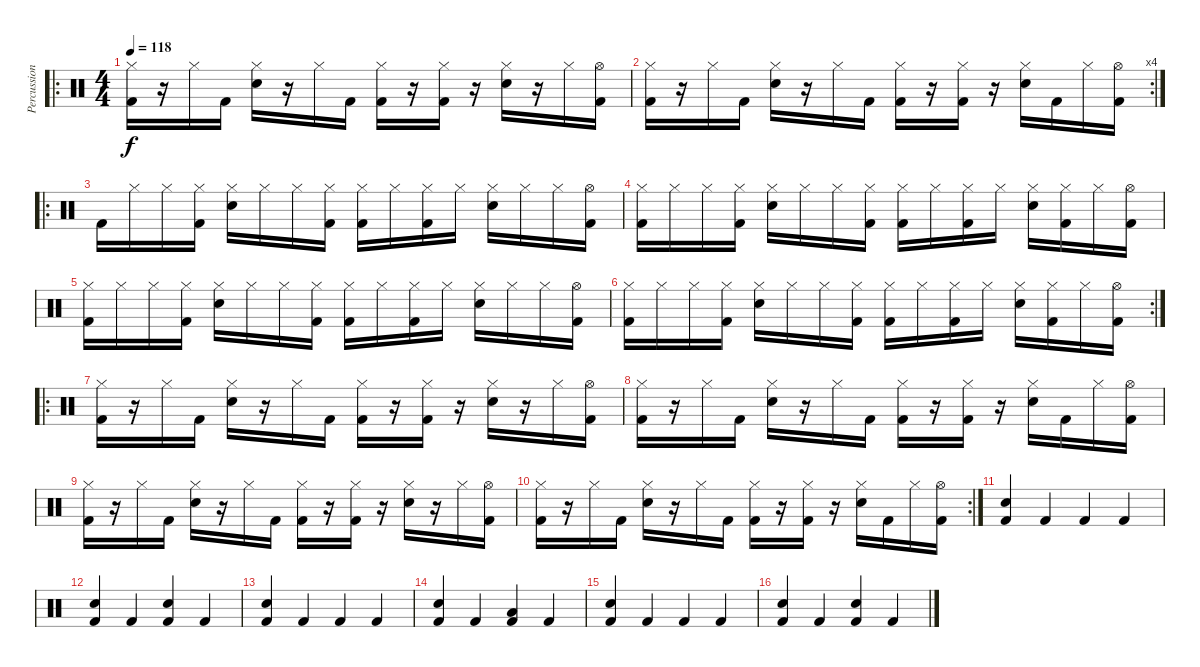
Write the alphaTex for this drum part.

\track ("Percussion" "Percussion") {instrument percussion}
\staff {score}
\articulation defaults
\ro
\ts (4 4)
\tempo 118
\clef neutral
\ks c
("Hi-Hat (closed)" "Kick (hit) 2").16{dy f} r.16 "Hi-Hat (closed)".16 "Kick (hit) 2".16 ("Hi-Hat (closed)" "Electric Snare (hit)").16 r.16 "Hi-Hat (closed)".16 "Kick (hit) 2".16 ("Hi-Hat (closed)" "Kick (hit) 2").16 r.16 ("Hi-Hat (closed)" "Kick (hit) 2").16 r.16 ("Hi-Hat (closed)" "Electric Snare (hit)").16 r.16 "Hi-Hat (closed)".16 ("Hi-Hat (open)" "Kick (hit) 2").16 |
\rc 4
("Hi-Hat (closed)" "Kick (hit) 2").16 r.16 "Hi-Hat (closed)".16 "Kick (hit) 2".16 ("Hi-Hat (closed)" "Electric Snare (hit)").16 r.16 "Hi-Hat (closed)".16 "Kick (hit) 2".16 ("Hi-Hat (closed)" "Kick (hit) 2").16 r.16 ("Hi-Hat (closed)" "Kick (hit) 2").16 r.16 ("Hi-Hat (closed)" "Electric Snare (hit)").16 "Kick (hit) 2".16 "Hi-Hat (closed)".16 ("Hi-Hat (open)" "Kick (hit) 2").16 |
\ro "Kick (hit) 2".16 "Hi-Hat (closed)".16 "Hi-Hat (closed)".16
("Hi-Hat (closed)" "Kick (hit) 2").16 ("Hi-Hat (closed)" "Electric Snare (hit)").16 "Hi-Hat (closed)".16 "Hi-Hat (closed)".16 ("Hi-Hat (closed)" "Kick (hit) 2").16 ("Hi-Hat (closed)" "Kick (hit) 2").16 "Hi-Hat (closed)".16 ("Hi-Hat (closed)" "Kick (hit) 2").16 "Hi-Hat (closed)".16 ("Hi-Hat (closed)" "Electric Snare (hit)").16 "Hi-Hat (closed)".16 "Hi-Hat (closed)".16 ("Hi-Hat (open)" "Kick (hit) 2").16 |
("Hi-Hat (closed)" "Kick (hit) 2").16 "Hi-Hat (closed)".16 "Hi-Hat (closed)".16 ("Hi-Hat (closed)" "Kick (hit) 2").16 ("Hi-Hat (closed)" "Electric Snare (hit)").16 "Hi-Hat (closed)".16 "Hi-Hat (closed)".16 ("Hi-Hat (closed)" "Kick (hit) 2").16 ("Hi-Hat (closed)" "Kick (hit) 2").16 "Hi-Hat (closed)".16 ("Hi-Hat (closed)" "Kick (hit) 2").16 "Hi-Hat (closed)".16 ("Hi-Hat (closed)" "Electric Snare (hit)").16 ("Hi-Hat (closed)" "Kick (hit) 2").16 "Hi-Hat (closed)".16 ("Hi-Hat (open)" "Kick (hit) 2").16 |
("Hi-Hat (closed)" "Kick (hit) 2").16 "Hi-Hat (closed)".16 "Hi-Hat (closed)".16 ("Hi-Hat (closed)" "Kick (hit) 2").16 ("Hi-Hat (closed)" "Electric Snare (hit)").16 "Hi-Hat (closed)".16 "Hi-Hat (closed)".16 ("Hi-Hat (closed)" "Kick (hit) 2").16 ("Hi-Hat (closed)" "Kick (hit) 2").16 "Hi-Hat (closed)".16 ("Hi-Hat (closed)" "Kick (hit) 2").16 "Hi-Hat (closed)".16 ("Hi-Hat (closed)" "Electric Snare (hit)").16 "Hi-Hat (closed)".16 "Hi-Hat (closed)".16 ("Hi-Hat (open)" "Kick (hit) 2").16 |
\rc 2
("Hi-Hat (closed)" "Kick (hit) 2").16 "Hi-Hat (closed)".16 "Hi-Hat (closed)".16 ("Hi-Hat (closed)" "Kick (hit) 2").16 ("Hi-Hat (closed)" "Electric Snare (hit)").16 "Hi-Hat (closed)".16 "Hi-Hat (closed)".16 ("Hi-Hat (closed)" "Kick (hit) 2").16 ("Hi-Hat (closed)" "Kick (hit) 2").16 "Hi-Hat (closed)".16 ("Hi-Hat (closed)" "Kick (hit) 2").16 "Hi-Hat (closed)".16 ("Hi-Hat (closed)" "Electric Snare (hit)").16 ("Hi-Hat (closed)" "Kick (hit) 2").16 "Hi-Hat (closed)".16 ("Hi-Hat (open)" "Kick (hit) 2").16 |
\ro
("Hi-Hat (closed)" "Kick (hit) 2").16{volume 16} r.16 "Hi-Hat (closed)".16 "Kick (hit) 2".16 ("Hi-Hat (closed)" "Electric Snare (hit)").16 r.16 "Hi-Hat (closed)".16 "Kick (hit) 2".16 ("Hi-Hat (closed)" "Kick (hit) 2").16 r.16 ("Hi-Hat (closed)" "Kick (hit) 2").16 r.16 ("Hi-Hat (closed)" "Electric Snare (hit)").16 r.16 "Hi-Hat (closed)".16 ("Hi-Hat (open)" "Kick (hit) 2").16 |
("Hi-Hat (closed)" "Kick (hit) 2").16 r.16 "Hi-Hat (closed)".16 "Kick (hit) 2".16 ("Hi-Hat (closed)" "Electric Snare (hit)").16 r.16 "Hi-Hat (closed)".16 "Kick (hit) 2".16 ("Hi-Hat (closed)" "Kick (hit) 2").16 r.16 ("Hi-Hat (closed)" "Kick (hit) 2").16 r.16 ("Hi-Hat (closed)" "Electric Snare (hit)").16 "Kick (hit) 2".16 "Hi-Hat (closed)".16 ("Hi-Hat (open)" "Kick (hit) 2").16 |
("Hi-Hat (closed)" "Kick (hit) 2").16 r.16 "Hi-Hat (closed)".16 "Kick (hit) 2".16 ("Hi-Hat (closed)" "Electric Snare (hit)").16 r.16 "Hi-Hat (closed)".16 "Kick (hit) 2".16 ("Hi-Hat (closed)" "Kick (hit) 2").16 r.16 ("Hi-Hat (closed)" "Kick (hit) 2").16 r.16 ("Hi-Hat (closed)" "Electric Snare (hit)").16 r.16 "Hi-Hat (closed)".16 ("Hi-Hat (open)" "Kick (hit) 2").16 |
\rc 2
("Hi-Hat (closed)" "Kick (hit) 2").16 r.16 "Hi-Hat (closed)".16 "Kick (hit) 2".16 ("Hi-Hat (closed)" "Electric Snare (hit)").16 r.16 "Hi-Hat (closed)".16 "Kick (hit) 2".16 ("Hi-Hat (closed)" "Kick (hit) 2").16 r.16 ("Hi-Hat (closed)" "Kick (hit) 2").16 r.16 ("Hi-Hat (closed)" "Electric Snare (hit)").16 "Kick (hit) 2".16 "Hi-Hat (closed)".16 ("Hi-Hat (open)" "Kick (hit) 2").16 |
("Electric Snare (hit)" "Kick (hit) 2").4 "Kick (hit) 2".4 "Kick (hit) 2".4 "Kick (hit) 2".4 |
("Electric Snare (hit)" "Kick (hit) 2").4 "Kick (hit) 2".4 ("Electric Snare (hit)" "Kick (hit) 2").4 "Kick (hit) 2".4 |
("Electric Snare (hit)" "Kick (hit) 2").4 "Kick (hit) 2".4 "Kick (hit) 2".4 "Kick (hit) 2".4 |
("Electric Snare (hit)" "Kick (hit) 2").4 "Kick (hit) 2".4 ("Low Floor Tom (hit)" "Kick (hit) 2").4 "Kick (hit) 2".4 |
("Electric Snare (hit)" "Kick (hit) 2").4 "Kick (hit) 2".4 "Kick (hit) 2".4 "Kick (hit) 2".4 |
("Electric Snare (hit)" "Kick (hit) 2").4 "Kick (hit) 2".4 ("Electric Snare (hit)" "Kick (hit) 2").4 "Kick (hit) 2".4
